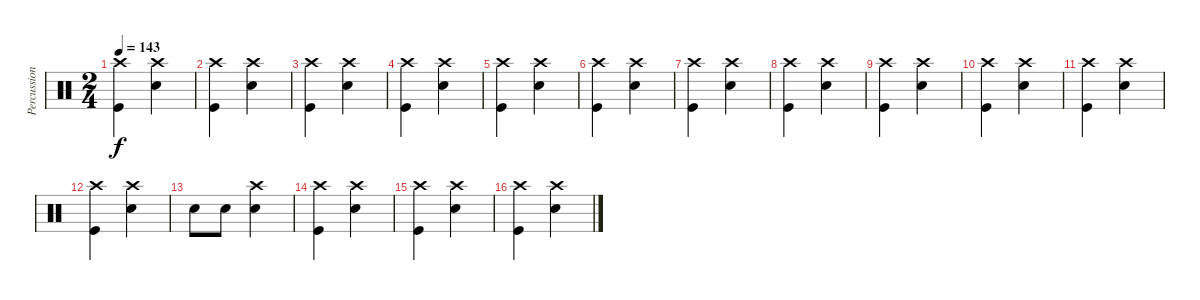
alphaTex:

\track ("Percussion" "Percussion") {instrument percussion}
\staff {score}
\articulation defaults
\ts (2 4)
\tempo 143
\clef neutral
\ks c
("Kick (hit)" "Crash high (hit)").4{dy f} ("Snare (hit) 2"{x} "Crash high (hit)").4 |
("Kick (hit)" "Crash high (hit)").4 ("Snare (hit) 2"{x} "Crash high (hit)").4 |
("Kick (hit)" "Crash high (hit)").4 ("Snare (hit) 2"{x} "Crash high (hit)").4 |
("Kick (hit)" "Crash high (hit)").4 ("Snare (hit) 2"{x} "Crash high (hit)").4 |
("Kick (hit)" "Crash high (hit)").4 ("Snare (hit) 2"{x} "Crash high (hit)").4 |
("Kick (hit)" "Crash high (hit)").4 ("Snare (hit) 2"{x} "Crash high (hit)").4 |
("Kick (hit)" "Crash high (hit)").4 ("Snare (hit) 2"{x} "Crash high (hit)").4 |
("Kick (hit)" "Crash high (hit)").4 ("Snare (hit) 2"{x} "Crash high (hit)").4 |
("Kick (hit)" "Crash high (hit)").4 ("Snare (hit) 2"{x} "Crash high (hit)").4 |
("Kick (hit)" "Crash high (hit)").4 ("Snare (hit) 2"{x} "Crash high (hit)").4 |
("Kick (hit)" "Crash high (hit)").4 ("Snare (hit) 2"{x} "Crash high (hit)").4 |
("Kick (hit)" "Crash high (hit)").4 ("Snare (hit) 2"{x} "Crash high (hit)").4 |
"Snare (hit) 2".8 "Snare (hit) 2".8 ("Snare (hit) 2" "Crash high (hit)").4 |
("Kick (hit)" "Crash high (hit)").4 ("Snare (hit) 2" "Crash high (hit)").4 |
("Kick (hit)" "Crash high (hit)").4 ("Snare (hit) 2" "Crash high (hit)").4 |
("Kick (hit)" "Crash high (hit)").4 ("Snare (hit) 2" "Crash high (hit)").4
